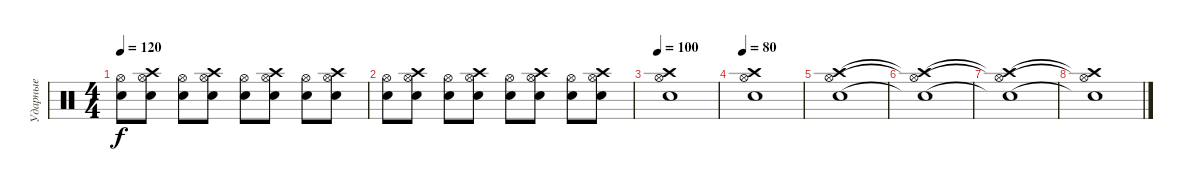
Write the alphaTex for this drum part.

\track ("Ударные" "Ударные") {instrument percussion}
\staff {score}
\articulation defaults
\ts (4 4)
\tempo 120
\clef neutral
\ks c
("Hi-Hat (open)" "Snare (hit) 2").8{dy f} ("Hi-Hat (open)" "Crash high (hit)" "Snare (hit) 2").8 ("Hi-Hat (open)" "Snare (hit) 2").8 ("Hi-Hat (open)" "Crash high (hit)" "Snare (hit) 2").8 ("Hi-Hat (open)" "Snare (hit) 2").8 ("Hi-Hat (open)" "Crash high (hit)" "Snare (hit) 2").8 ("Hi-Hat (open)" "Snare (hit) 2").8 ("Hi-Hat (open)" "Crash high (hit)" "Snare (hit) 2").8 |
("Hi-Hat (open)" "Snare (hit) 2").8 ("Hi-Hat (open)" "Crash high (hit)" "Snare (hit) 2").8 ("Hi-Hat (open)" "Snare (hit) 2").8 ("Hi-Hat (open)" "Crash high (hit)" "Snare (hit) 2").8 ("Hi-Hat (open)" "Snare (hit) 2").8 ("Hi-Hat (open)" "Crash high (hit)" "Snare (hit) 2").8 ("Hi-Hat (open)" "Snare (hit) 2").8 ("Hi-Hat (open)" "Crash high (hit)" "Snare (hit) 2").8 |
\tempo 100
("Hi-Hat (open)" "Crash high (hit)" "Snare (hit) 2").1 |
\tempo 80
("Hi-Hat (open)" "Crash high (hit)" "Snare (hit) 2").1 |
("Hi-Hat (open)" "Crash high (hit)" "Snare (hit) 2").1 |
("Hi-Hat (open)"{t} "Crash high (hit)"{t} "Snare (hit) 2"{t}).1 |
("Hi-Hat (open)"{t} "Crash high (hit)"{t} "Snare (hit) 2"{t}).1 |
("Hi-Hat (open)"{t} "Crash high (hit)"{t} "Snare (hit) 2"{t}).1
